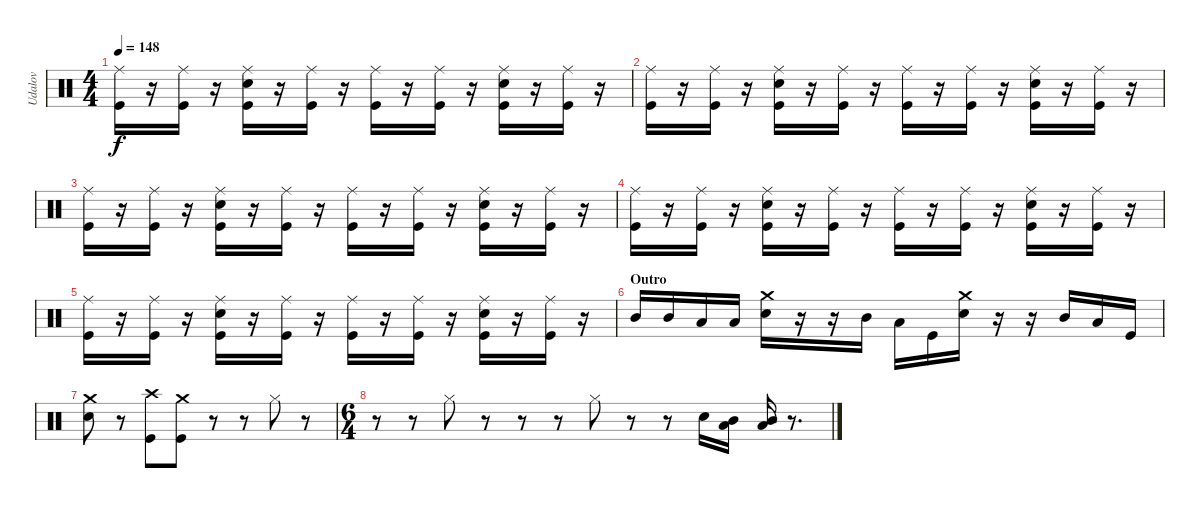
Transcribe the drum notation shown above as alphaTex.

\track ("Udalov" "Udalov") {instrument percussion}
\staff {score}
\articulation defaults
\ts (4 4)
\tempo 148
\clef neutral
\ks c
("Kick (hit)" "Ride (middle)").16{dy f} r.16 ("Kick (hit)" "Ride (middle)").16 r.16 ("Electric Snare (hit)" "Kick (hit)" "Ride (middle)").16 r.16 ("Kick (hit)" "Ride (middle)").16 r.16 ("Kick (hit)" "Ride (middle)").16 r.16 ("Kick (hit)" "Ride (middle)").16 r.16 ("Electric Snare (hit)" "Kick (hit)" "Ride (middle)").16 r.16 ("Kick (hit)" "Ride (middle)").16 r.16 |
("Kick (hit)" "Ride (middle)").16 r.16 ("Kick (hit)" "Ride (middle)").16 r.16 ("Electric Snare (hit)" "Kick (hit)" "Ride (middle)").16 r.16 ("Kick (hit)" "Ride (middle)").16 r.16 ("Kick (hit)" "Ride (middle)").16 r.16 ("Kick (hit)" "Ride (middle)").16 r.16 ("Electric Snare (hit)" "Kick (hit)" "Ride (middle)").16 r.16 ("Kick (hit)" "Ride (middle)").16 r.16 |
("Kick (hit)" "Ride (middle)").16 r.16 ("Kick (hit)" "Ride (middle)").16 r.16 ("Electric Snare (hit)" "Kick (hit)" "Ride (middle)").16 r.16 ("Kick (hit)" "Ride (middle)").16 r.16 ("Kick (hit)" "Ride (middle)").16 r.16 ("Kick (hit)" "Ride (middle)").16 r.16 ("Electric Snare (hit)" "Kick (hit)" "Ride (middle)").16 r.16 ("Kick (hit)" "Ride (middle)").16 r.16 |
("Kick (hit)" "Ride (middle)").16 r.16 ("Kick (hit)" "Ride (middle)").16 r.16 ("Electric Snare (hit)" "Kick (hit)" "Ride (middle)").16 r.16 ("Kick (hit)" "Ride (middle)").16 r.16 ("Kick (hit)" "Ride (middle)").16 r.16 ("Kick (hit)" "Ride (middle)").16 r.16 ("Electric Snare (hit)" "Kick (hit)" "Ride (middle)").16 r.16 ("Kick (hit)" "Ride (middle)").16 r.16 |
("Kick (hit)" "Ride (middle)").16 r.16 ("Kick (hit)" "Ride (middle)").16 r.16 ("Electric Snare (hit)" "Kick (hit)" "Ride (middle)").16 r.16 ("Kick (hit)" "Ride (middle)").16 r.16 ("Kick (hit)" "Ride (middle)").16 r.16 ("Kick (hit)" "Ride (middle)").16 r.16 ("Electric Snare (hit)" "Kick (hit)" "Ride (middle)").16 r.16 ("Kick (hit)" "Ride (middle)").16 r.16 |
\section ("" "Outro")
"Mid Tom (hit)".16 "Mid Tom (hit)".16 "Low Tom (hit)".16 "Low Tom (hit)".16 ("Electric Snare (hit)" "Crash medium (hit)").16 r.16 r.16 "Mid Tom (hit)".16 "Low Tom (hit)".16 "Kick (hit)".16 ("Electric Snare (hit)" "Crash medium (hit)").16 r.16 r.16 "Mid Tom (hit)".16 "Low Tom (hit)".16 "Kick (hit)".16 |
("Electric Snare (hit)" "Crash medium (hit)").8 r.8 ("Kick (hit)" "Crash high (hit)").8 ("Kick (hit)" "Crash medium (hit)").8 r.8 r.8 "Hi-Hat (closed)".8 r.8 |
\ts (6 4)
r.8 r.8 "Hi-Hat (closed)".8 r.8 r.8 r.8 "Hi-Hat (closed)".8 r.8 r.8 "Electric Snare (hit)".16 ("Low Tom (hit)" "Mid Tom (hit)").16 ("Low Tom (hit)" "Mid Tom (hit)").16 r.8{d}
